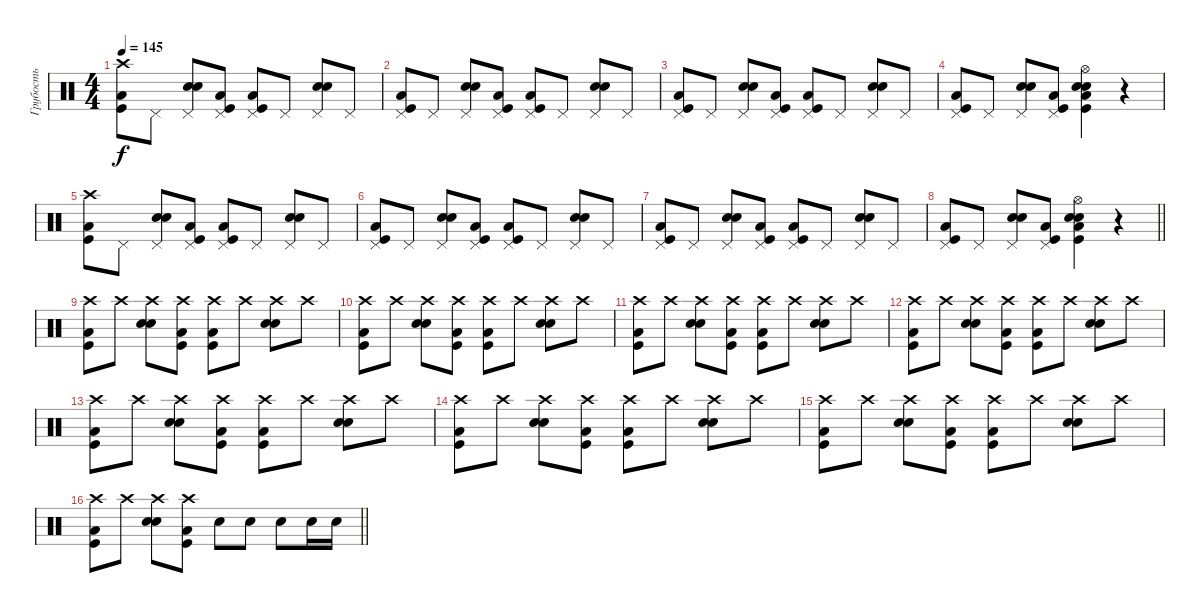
\track ("Грубость" "Грубость") {instrument percussion}
\staff {score}
\articulation defaults
\ts (4 4)
\tempo 145
\clef neutral
\ks c
("Crash high (hit)" "Low Tom (hit)" "Kick (hit)").8{dy f} "Pedal Hi-Hat (hit)".8 ("Pedal Hi-Hat (hit)" "Electric Snare (hit)" "Snare (hit) 2").8 ("Pedal Hi-Hat (hit)" "Low Tom (hit)" "Kick (hit)").8 ("Pedal Hi-Hat (hit)" "Low Tom (hit)" "Kick (hit)").8 "Pedal Hi-Hat (hit)".8 ("Pedal Hi-Hat (hit)" "Electric Snare (hit)" "Snare (hit) 2").8 "Pedal Hi-Hat (hit)".8 |
("Pedal Hi-Hat (hit)" "Low Tom (hit)" "Kick (hit)").8 "Pedal Hi-Hat (hit)".8 ("Pedal Hi-Hat (hit)" "Electric Snare (hit)" "Snare (hit) 2").8 ("Pedal Hi-Hat (hit)" "Low Tom (hit)" "Kick (hit)").8 ("Pedal Hi-Hat (hit)" "Low Tom (hit)" "Kick (hit)").8 "Pedal Hi-Hat (hit)".8 ("Pedal Hi-Hat (hit)" "Electric Snare (hit)" "Snare (hit) 2").8 "Pedal Hi-Hat (hit)".8 |
("Pedal Hi-Hat (hit)" "Low Tom (hit)" "Kick (hit)").8 "Pedal Hi-Hat (hit)".8 ("Pedal Hi-Hat (hit)" "Electric Snare (hit)" "Snare (hit) 2").8 ("Pedal Hi-Hat (hit)" "Low Tom (hit)" "Kick (hit)").8 ("Pedal Hi-Hat (hit)" "Low Tom (hit)" "Kick (hit)").8 "Pedal Hi-Hat (hit)".8 ("Pedal Hi-Hat (hit)" "Electric Snare (hit)" "Snare (hit) 2").8 "Pedal Hi-Hat (hit)".8 |
("Pedal Hi-Hat (hit)" "Low Tom (hit)" "Kick (hit)").8 "Pedal Hi-Hat (hit)".8 ("Pedal Hi-Hat (hit)" "Electric Snare (hit)" "Snare (hit) 2").8 ("Pedal Hi-Hat (hit)" "Low Tom (hit)" "Kick (hit)").8 ("Hi-Hat (open)" "Electric Snare (hit)" "Snare (hit) 2" "Low Tom (hit)" "Kick (hit)").4 r.4 |
("Crash high (hit)" "Low Tom (hit)" "Kick (hit)").8 "Pedal Hi-Hat (hit)".8 ("Pedal Hi-Hat (hit)" "Electric Snare (hit)" "Snare (hit) 2").8 ("Pedal Hi-Hat (hit)" "Low Tom (hit)" "Kick (hit)").8 ("Pedal Hi-Hat (hit)" "Low Tom (hit)" "Kick (hit)").8 "Pedal Hi-Hat (hit)".8 ("Pedal Hi-Hat (hit)" "Electric Snare (hit)" "Snare (hit) 2").8 "Pedal Hi-Hat (hit)".8 |
("Pedal Hi-Hat (hit)" "Low Tom (hit)" "Kick (hit)").8 "Pedal Hi-Hat (hit)".8 ("Pedal Hi-Hat (hit)" "Electric Snare (hit)" "Snare (hit) 2").8 ("Pedal Hi-Hat (hit)" "Low Tom (hit)" "Kick (hit)").8 ("Pedal Hi-Hat (hit)" "Low Tom (hit)" "Kick (hit)").8 "Pedal Hi-Hat (hit)".8 ("Pedal Hi-Hat (hit)" "Electric Snare (hit)" "Snare (hit) 2").8 "Pedal Hi-Hat (hit)".8 |
("Pedal Hi-Hat (hit)" "Low Tom (hit)" "Kick (hit)").8 "Pedal Hi-Hat (hit)".8 ("Pedal Hi-Hat (hit)" "Electric Snare (hit)" "Snare (hit) 2").8 ("Pedal Hi-Hat (hit)" "Low Tom (hit)" "Kick (hit)").8 ("Pedal Hi-Hat (hit)" "Low Tom (hit)" "Kick (hit)").8 "Pedal Hi-Hat (hit)".8 ("Pedal Hi-Hat (hit)" "Electric Snare (hit)" "Snare (hit) 2").8 "Pedal Hi-Hat (hit)".8 |
\barLineRight lightlight
("Pedal Hi-Hat (hit)" "Low Tom (hit)" "Kick (hit)").8 "Pedal Hi-Hat (hit)".8 ("Pedal Hi-Hat (hit)" "Electric Snare (hit)" "Snare (hit) 2").8 ("Pedal Hi-Hat (hit)" "Low Tom (hit)" "Kick (hit)").8 ("Hi-Hat (open)" "Electric Snare (hit)" "Snare (hit) 2" "Low Tom (hit)" "Kick (hit)").4 r.4 |
("Crash high (hit)" "Low Tom (hit)" "Kick (hit)").8 "Crash high (hit)".8 ("Crash high (hit)" "Electric Snare (hit)" "Snare (hit) 2").8 ("Crash high (hit)" "Low Tom (hit)" "Kick (hit)").8 ("Crash high (hit)" "Low Tom (hit)" "Kick (hit)").8 "Crash high (hit)".8 ("Crash high (hit)" "Electric Snare (hit)" "Snare (hit) 2").8 "Crash high (hit)".8 |
("Crash high (hit)" "Low Tom (hit)" "Kick (hit)").8 "Crash high (hit)".8 ("Crash high (hit)" "Electric Snare (hit)" "Snare (hit) 2").8 ("Crash high (hit)" "Low Tom (hit)" "Kick (hit)").8 ("Crash high (hit)" "Low Tom (hit)" "Kick (hit)").8 "Crash high (hit)".8 ("Crash high (hit)" "Electric Snare (hit)" "Snare (hit) 2").8 "Crash high (hit)".8 |
("Crash high (hit)" "Low Tom (hit)" "Kick (hit)").8 "Crash high (hit)".8 ("Crash high (hit)" "Electric Snare (hit)" "Snare (hit) 2").8 ("Crash high (hit)" "Low Tom (hit)" "Kick (hit)").8 ("Crash high (hit)" "Low Tom (hit)" "Kick (hit)").8 "Crash high (hit)".8 ("Crash high (hit)" "Electric Snare (hit)" "Snare (hit) 2").8 "Crash high (hit)".8 |
("Crash high (hit)" "Low Tom (hit)" "Kick (hit)").8 "Crash high (hit)".8 ("Crash high (hit)" "Electric Snare (hit)" "Snare (hit) 2").8 ("Crash high (hit)" "Low Tom (hit)" "Kick (hit)").8 ("Crash high (hit)" "Low Tom (hit)" "Kick (hit)").8 "Crash high (hit)".8 ("Crash high (hit)" "Electric Snare (hit)" "Snare (hit) 2").8 "Crash high (hit)".8 |
("Crash high (hit)" "Low Tom (hit)" "Kick (hit)").8 "Crash high (hit)".8 ("Crash high (hit)" "Electric Snare (hit)" "Snare (hit) 2").8 ("Crash high (hit)" "Low Tom (hit)" "Kick (hit)").8 ("Crash high (hit)" "Low Tom (hit)" "Kick (hit)").8 "Crash high (hit)".8 ("Crash high (hit)" "Electric Snare (hit)" "Snare (hit) 2").8 "Crash high (hit)".8 |
("Crash high (hit)" "Low Tom (hit)" "Kick (hit)").8 "Crash high (hit)".8 ("Crash high (hit)" "Electric Snare (hit)" "Snare (hit) 2").8 ("Crash high (hit)" "Low Tom (hit)" "Kick (hit)").8 ("Crash high (hit)" "Low Tom (hit)" "Kick (hit)").8 "Crash high (hit)".8 ("Crash high (hit)" "Electric Snare (hit)" "Snare (hit) 2").8 "Crash high (hit)".8 |
("Crash high (hit)" "Low Tom (hit)" "Kick (hit)").8 "Crash high (hit)".8 ("Crash high (hit)" "Electric Snare (hit)" "Snare (hit) 2").8 ("Crash high (hit)" "Low Tom (hit)" "Kick (hit)").8 ("Crash high (hit)" "Low Tom (hit)" "Kick (hit)").8 "Crash high (hit)".8 ("Crash high (hit)" "Electric Snare (hit)" "Snare (hit) 2").8 "Crash high (hit)".8 |
\barLineRight lightlight
("Crash high (hit)" "Low Tom (hit)" "Kick (hit)").8 "Crash high (hit)".8 ("Crash high (hit)" "Electric Snare (hit)" "Snare (hit) 2").8 ("Crash high (hit)" "Low Tom (hit)" "Kick (hit)").8 "Electric Snare (hit)".8 "Electric Snare (hit)".8 "Electric Snare (hit)".8 "Electric Snare (hit)".16 "Snare (hit) 2".16
